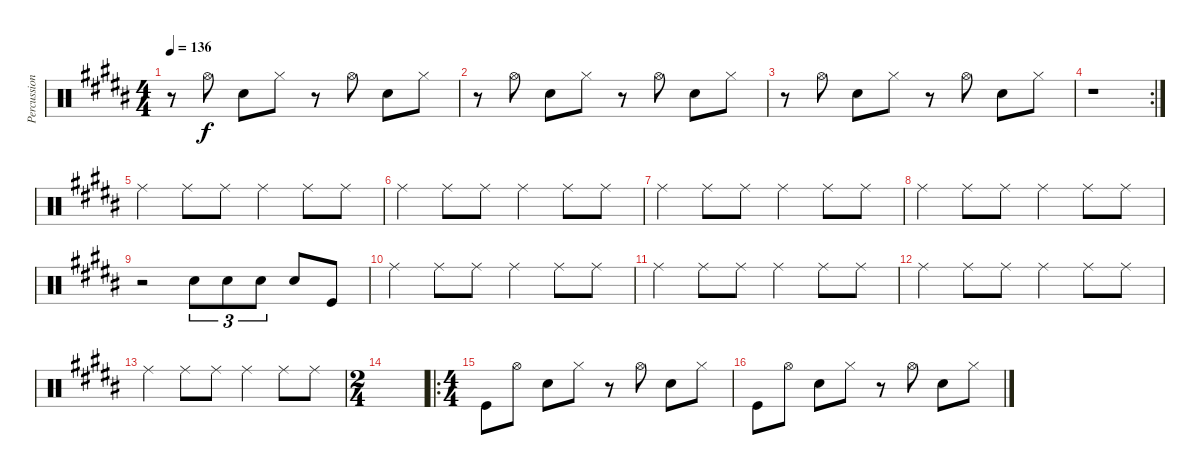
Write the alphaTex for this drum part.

\track ("Percussion" "Percussion") {instrument percussion}
\staff {score}
\articulation defaults
\ts (4 4)
\tempo 136
\clef neutral
\ks g#minor
r.8{dy f} "Hi-Hat (open)".8 "Snare (hit) 2".8 "Hi-Hat (closed)".8 r.8 "Hi-Hat (open)".8 "Snare (hit) 2".8 "Hi-Hat (closed)".8 |
r.8 "Hi-Hat (open)".8 "Snare (hit) 2".8 "Hi-Hat (closed)".8 r.8 "Hi-Hat (open)".8 "Snare (hit) 2".8 "Hi-Hat (closed)".8 |
r.8 "Hi-Hat (open)".8 "Snare (hit) 2".8 "Hi-Hat (closed)".8 r.8 "Hi-Hat (open)".8 "Snare (hit) 2".8 "Hi-Hat (closed)".8 |
\rc 2
r.1 |
"Ride (middle)".4 "Ride (middle)".8 "Ride (middle)".8 "Ride (middle)".4 "Ride (middle)".8 "Ride (middle)".8 |
"Ride (middle)".4 "Ride (middle)".8 "Ride (middle)".8 "Ride (middle)".4 "Ride (middle)".8 "Ride (middle)".8 |
"Ride (middle)".4 "Ride (middle)".8 "Ride (middle)".8 "Ride (middle)".4 "Ride (middle)".8 "Ride (middle)".8 |
"Ride (middle)".4 "Ride (middle)".8 "Ride (middle)".8 "Ride (middle)".4 "Ride (middle)".8 "Ride (middle)".8 |
r.2 "Snare (hit) 2".8{tu (3 2)} "Snare (hit) 2".8{tu (3 2)} "Snare (hit) 2".8{tu (3 2)} "Snare (hit) 2".8 "Kick (hit)".8 |
"Ride (middle)".4 "Ride (middle)".8 "Ride (middle)".8 "Ride (middle)".4 "Ride (middle)".8 "Ride (middle)".8 |
"Ride (middle)".4 "Ride (middle)".8 "Ride (middle)".8 "Ride (middle)".4 "Ride (middle)".8 "Ride (middle)".8 |
"Ride (middle)".4 "Ride (middle)".8 "Ride (middle)".8 "Ride (middle)".4 "Ride (middle)".8 "Ride (middle)".8 |
"Ride (middle)".4 "Ride (middle)".8 "Ride (middle)".8 "Ride (middle)".4 "Ride (middle)".8 "Ride (middle)".8 |
\ts (2 4)
|
\ro
\ts (4 4)
"Kick (hit)".8 "Hi-Hat (open)".8 "Snare (hit) 2".8 "Hi-Hat (closed)".8 r.8 "Hi-Hat (open)".8 "Snare (hit) 2".8 "Hi-Hat (closed)".8 |
"Kick (hit)".8 "Hi-Hat (open)".8 "Snare (hit) 2".8 "Hi-Hat (closed)".8 r.8 "Hi-Hat (open)".8 "Snare (hit) 2".8 "Hi-Hat (closed)".8
